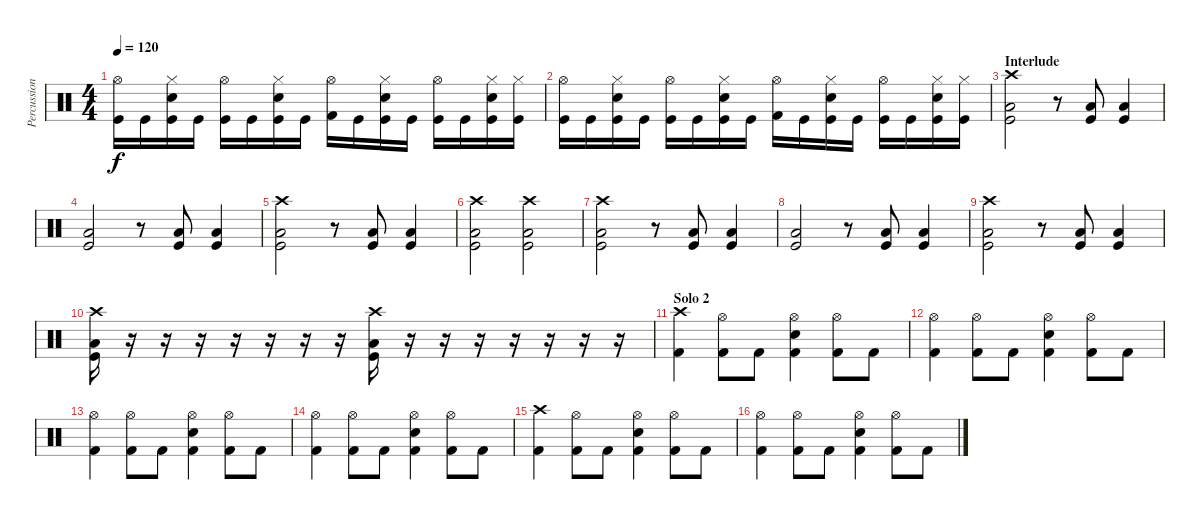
\track ("Percussion" "Percussion") {instrument percussion}
\staff {score}
\articulation defaults
\ts (4 4)
\tempo 120
\clef neutral
\ks c
("Kick (hit)" "Hi-Hat (open)").16{dy f} "Kick (hit)".16 ("Kick (hit)" "Electric Snare (hit)" "Hi-Hat (closed)").16 "Kick (hit)".16 ("Kick (hit)" "Hi-Hat (open)").16 "Kick (hit)".16 ("Kick (hit)" "Electric Snare (hit)" "Hi-Hat (closed)").16 "Kick (hit)".16 ("Kick (hit) 2" "Hi-Hat (open)").16 "Kick (hit)".16 ("Kick (hit)" "Electric Snare (hit)" "Hi-Hat (closed)").16 "Kick (hit)".16 ("Kick (hit)" "Hi-Hat (open)").16 "Kick (hit)".16 ("Kick (hit)" "Electric Snare (hit)" "Hi-Hat (closed)").16 ("Kick (hit)" "Hi-Hat (closed)").16 |
("Kick (hit)" "Hi-Hat (open)").16 "Kick (hit)".16 ("Kick (hit)" "Electric Snare (hit)" "Hi-Hat (closed)").16 "Kick (hit)".16 ("Kick (hit)" "Hi-Hat (open)").16 "Kick (hit)".16 ("Kick (hit)" "Electric Snare (hit)" "Hi-Hat (closed)").16 "Kick (hit)".16 ("Kick (hit) 2" "Hi-Hat (open)").16 "Kick (hit)".16 ("Kick (hit)" "Electric Snare (hit)" "Hi-Hat (closed)").16 "Kick (hit)".16 ("Kick (hit)" "Hi-Hat (open)").16 "Kick (hit)".16 ("Kick (hit)" "Electric Snare (hit)" "Hi-Hat (closed)").16 ("Kick (hit)" "Hi-Hat (closed)").16 |
\section ("" "Interlude")
("Kick (hit)" "Low Floor Tom (hit)" "Crash high (hit)").2 r.8 ("Kick (hit)" "Low Floor Tom (hit)").8 ("Kick (hit)" "Low Floor Tom (hit)").4 |
("Kick (hit)" "Low Floor Tom (hit)").2 r.8 ("Kick (hit)" "Low Floor Tom (hit)").8 ("Kick (hit)" "Low Floor Tom (hit)").4 |
("Kick (hit)" "Low Floor Tom (hit)" "Crash high (hit)").2 r.8 ("Kick (hit)" "Low Floor Tom (hit)").8 ("Kick (hit)" "Low Floor Tom (hit)").4 |
("Kick (hit)" "Low Floor Tom (hit)" "Crash high (hit)").2 ("Kick (hit)" "Low Floor Tom (hit)" "Crash high (hit)").2 |
("Kick (hit)" "Low Floor Tom (hit)" "Crash high (hit)").2 r.8 ("Kick (hit)" "Low Floor Tom (hit)").8 ("Kick (hit)" "Low Floor Tom (hit)").4 |
("Kick (hit)" "Low Floor Tom (hit)").2 r.8 ("Kick (hit)" "Low Floor Tom (hit)").8 ("Kick (hit)" "Low Floor Tom (hit)").4 |
("Kick (hit)" "Low Floor Tom (hit)" "Crash high (hit)").2 r.8 ("Kick (hit)" "Low Floor Tom (hit)").8 ("Kick (hit)" "Low Floor Tom (hit)").4 |
("Kick (hit)" "Low Floor Tom (hit)" "Crash high (hit)").16 r.16 r.16 r.16 r.16 r.16 r.16 r.16 ("Kick (hit)" "Low Floor Tom (hit)" "Crash high (hit)").16 r.16 r.16 r.16 r.16 r.16 r.16 r.16 |
\section ("" "Solo 2")
("Kick (hit) 2" "Crash high (hit)").4 ("Kick (hit) 2" "Hi-Hat (open)").8 "Kick (hit) 2".8 ("Kick (hit) 2" "Hi-Hat (open)" "Electric Snare (hit)").4 ("Kick (hit) 2" "Hi-Hat (open)").8 "Kick (hit) 2".8 |
("Kick (hit) 2" "Hi-Hat (open)").4 ("Kick (hit) 2" "Hi-Hat (open)").8 "Kick (hit) 2".8 ("Kick (hit) 2" "Hi-Hat (open)" "Electric Snare (hit)").4 ("Kick (hit) 2" "Hi-Hat (open)").8 "Kick (hit) 2".8 |
("Kick (hit) 2" "Hi-Hat (open)").4 ("Kick (hit) 2" "Hi-Hat (open)").8 "Kick (hit) 2".8 ("Kick (hit) 2" "Hi-Hat (open)" "Electric Snare (hit)").4 ("Kick (hit) 2" "Hi-Hat (open)").8 "Kick (hit) 2".8 |
("Kick (hit) 2" "Hi-Hat (open)").4 ("Kick (hit) 2" "Hi-Hat (open)").8 "Kick (hit) 2".8 ("Kick (hit) 2" "Hi-Hat (open)" "Electric Snare (hit)").4 ("Kick (hit) 2" "Hi-Hat (open)").8 "Kick (hit) 2".8 |
("Kick (hit) 2" "Crash high (hit)").4 ("Kick (hit) 2" "Hi-Hat (open)").8 "Kick (hit) 2".8 ("Kick (hit) 2" "Hi-Hat (open)" "Electric Snare (hit)").4 ("Kick (hit) 2" "Hi-Hat (open)").8 "Kick (hit) 2".8 |
("Kick (hit) 2" "Hi-Hat (open)").4 ("Kick (hit) 2" "Hi-Hat (open)").8 "Kick (hit) 2".8 ("Kick (hit) 2" "Hi-Hat (open)" "Electric Snare (hit)").4 ("Kick (hit) 2" "Hi-Hat (open)").8 "Kick (hit) 2".8
